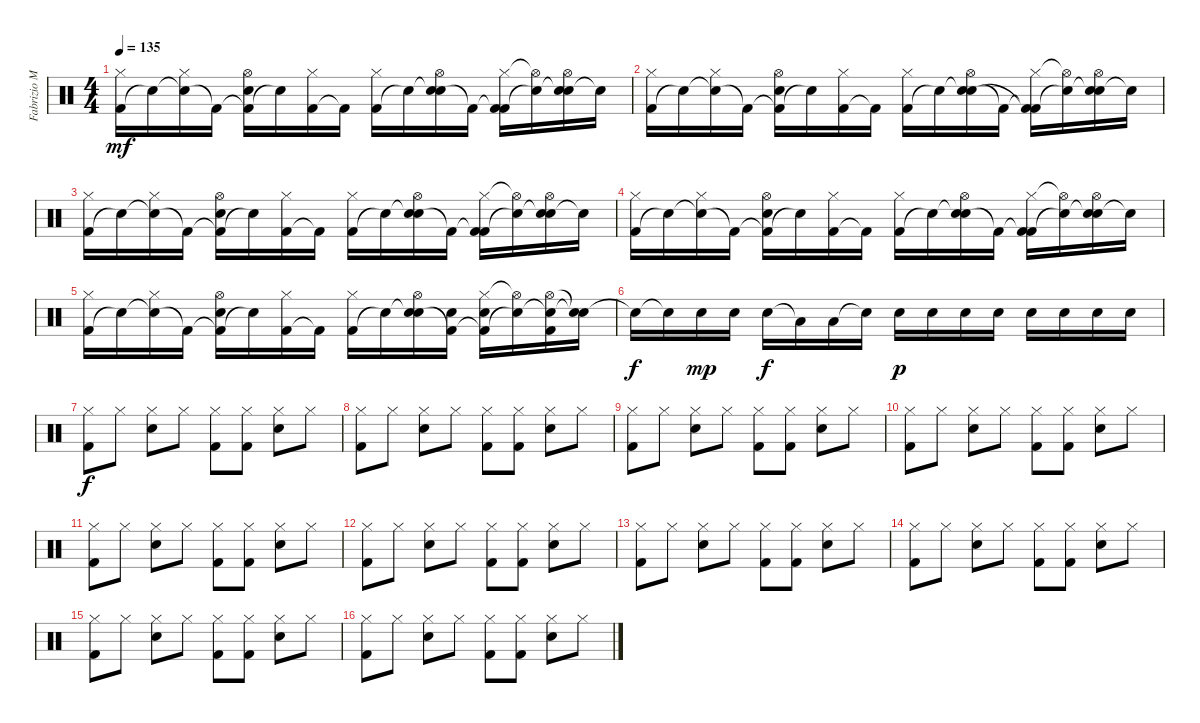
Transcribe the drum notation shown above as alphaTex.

\track ("Fabrizio Moretti" "Fabrizio M") {instrument percussion}
\staff {score}
\articulation defaults
\ts (4 4)
\tempo 135
\clef neutral
\ks c
("Kick (hit) 2" "Hi-Hat (closed)").16{dy mf} "Snare (hit)"{t}.16 ("Snare (hit)"{t} "Hi-Hat (closed)").16 "Kick (hit) 2"{t}.16 ("Kick (hit) 2"{t} "Hi-Hat (open)" "Electric Snare (hit)").16 "Snare (hit)"{t}.16 ("Kick (hit) 2" "Hi-Hat (closed)").16 "Kick (hit) 2"{t}.16 ("Kick (hit) 2" "Hi-Hat (closed)").16 "Snare (hit)"{t}.16 ("Snare (hit)"{t} "Hi-Hat (open)" "Electric Snare (hit)").16 "Kick (hit) 2"{t}.16 ("Kick (hit) 2"{t} "Hi-Hat (closed)" "Kick (hit) 2").16 ("Snare (hit)"{t} "Hi-Hat (open)"{t}).16 ("Snare (hit)"{t} "Hi-Hat (open)" "Electric Snare (hit)").16 "Snare (hit)"{t}.16 |
("Kick (hit) 2" "Hi-Hat (closed)").16 "Snare (hit)"{t}.16 ("Snare (hit)"{t} "Hi-Hat (closed)").16 "Kick (hit) 2"{t}.16 ("Kick (hit) 2"{t} "Hi-Hat (open)" "Electric Snare (hit)").16 "Snare (hit)"{t}.16 ("Kick (hit) 2" "Hi-Hat (closed)").16 "Kick (hit) 2"{t}.16 ("Kick (hit) 2" "Hi-Hat (closed)").16 "Snare (hit)"{t}.16 ("Snare (hit)"{t} "Hi-Hat (open)" "Electric Snare (hit)").16 "Kick (hit) 2"{t}.16 ("Kick (hit) 2"{t} "Hi-Hat (closed)" "Kick (hit) 2"{t}).16 ("Snare (hit)"{t} "Hi-Hat (open)"{t}).16 ("Snare (hit)"{t} "Hi-Hat (open)" "Electric Snare (hit)").16 "Snare (hit)"{t}.16 |
("Kick (hit) 2" "Hi-Hat (closed)").16 "Snare (hit)"{t}.16 ("Snare (hit)"{t} "Hi-Hat (closed)").16 "Kick (hit) 2"{t}.16 ("Kick (hit) 2"{t} "Hi-Hat (open)" "Electric Snare (hit)").16 "Snare (hit)"{t}.16 ("Kick (hit) 2" "Hi-Hat (closed)").16 "Kick (hit) 2"{t}.16 ("Kick (hit) 2" "Hi-Hat (closed)").16 "Snare (hit)"{t}.16 ("Snare (hit)"{t} "Hi-Hat (open)" "Electric Snare (hit)").16 "Kick (hit) 2"{t}.16 ("Kick (hit) 2"{t} "Hi-Hat (closed)" "Kick (hit) 2").16 ("Snare (hit)"{t} "Hi-Hat (open)"{t}).16 ("Snare (hit)"{t} "Hi-Hat (open)" "Electric Snare (hit)").16 "Snare (hit)"{t}.16 |
("Kick (hit) 2" "Hi-Hat (closed)").16 "Snare (hit)"{t}.16 ("Snare (hit)"{t} "Hi-Hat (closed)").16 "Kick (hit) 2"{t}.16 ("Kick (hit) 2"{t} "Hi-Hat (open)" "Electric Snare (hit)").16 "Snare (hit)"{t}.16 ("Kick (hit) 2" "Hi-Hat (closed)").16 "Kick (hit) 2"{t}.16 ("Kick (hit) 2" "Hi-Hat (closed)").16 "Snare (hit)"{t}.16 ("Snare (hit)"{t} "Hi-Hat (open)" "Electric Snare (hit)").16 "Kick (hit) 2"{t}.16 ("Kick (hit) 2"{t} "Hi-Hat (closed)" "Kick (hit) 2").16 ("Snare (hit)"{t} "Hi-Hat (open)"{t}).16 ("Snare (hit)"{t} "Hi-Hat (open)" "Electric Snare (hit)").16 "Snare (hit)"{t}.16 |
("Kick (hit) 2" "Hi-Hat (closed)").16 "Snare (hit)"{t}.16 ("Snare (hit)"{t} "Hi-Hat (closed)").16 "Kick (hit) 2"{t}.16 ("Kick (hit) 2"{t} "Hi-Hat (open)" "Electric Snare (hit)").16 "Snare (hit)"{t}.16 ("Kick (hit) 2" "Hi-Hat (closed)").16 "Kick (hit) 2"{t}.16 ("Kick (hit) 2" "Hi-Hat (closed)").16 "Snare (hit)"{t}.16 ("Snare (hit)"{t} "Hi-Hat (open)" "Electric Snare (hit)").16 ("Kick (hit) 2"{t} "Electric Snare (hit)").16 ("Kick (hit) 2"{t} "Hi-Hat (closed)" "Electric Snare (hit)").16 ("Snare (hit)"{t} "Hi-Hat (open)"{t}).16 ("Snare (hit)"{t} "Hi-Hat (open)" "Kick (hit) 2").16 ("Snare (hit)"{t} "Electric Snare (hit)"{t}).16 |
"Electric Snare (hit)"{t}.16{dy f} "Electric Snare (hit)"{t}.16 "Electric Snare (hit)".16{dy mp} "Electric Snare (hit)".16 "Electric Snare (hit)".16{dy f} "Low Tom (hit)"{t}.16 "Low Tom (hit)".16 "Electric Snare (hit)"{t}.16 "Electric Snare (hit)".16{dy p} "Electric Snare (hit)".16 "Electric Snare (hit)".16 "Electric Snare (hit)".16 "Electric Snare (hit)".16 "Electric Snare (hit)".16 "Electric Snare (hit)".16 "Electric Snare (hit)".16 |
("Hi-Hat (closed)" "Kick (hit) 2").8{dy f} "Hi-Hat (closed)".8 ("Hi-Hat (closed)" "Electric Snare (hit)").8 "Hi-Hat (closed)".8 ("Hi-Hat (closed)" "Kick (hit) 2").8 ("Hi-Hat (closed)" "Kick (hit) 2").8 ("Hi-Hat (closed)" "Electric Snare (hit)").8 "Hi-Hat (closed)".8 |
("Hi-Hat (closed)" "Kick (hit) 2").8 "Hi-Hat (closed)".8 ("Hi-Hat (closed)" "Electric Snare (hit)").8 "Hi-Hat (closed)".8 ("Hi-Hat (closed)" "Kick (hit) 2").8 ("Hi-Hat (closed)" "Kick (hit) 2").8 ("Hi-Hat (closed)" "Electric Snare (hit)").8 "Hi-Hat (closed)".8 |
("Hi-Hat (closed)" "Kick (hit) 2").8 "Hi-Hat (closed)".8 ("Hi-Hat (closed)" "Electric Snare (hit)").8 "Hi-Hat (closed)".8 ("Hi-Hat (closed)" "Kick (hit) 2").8 ("Hi-Hat (closed)" "Kick (hit) 2").8 ("Hi-Hat (closed)" "Electric Snare (hit)").8 "Hi-Hat (closed)".8 |
("Hi-Hat (closed)" "Kick (hit) 2").8 "Hi-Hat (closed)".8 ("Hi-Hat (closed)" "Electric Snare (hit)").8 "Hi-Hat (closed)".8 ("Hi-Hat (closed)" "Kick (hit) 2").8 ("Hi-Hat (closed)" "Kick (hit) 2").8 ("Hi-Hat (closed)" "Electric Snare (hit)").8 "Hi-Hat (closed)".8 |
("Hi-Hat (closed)" "Kick (hit) 2").8 "Hi-Hat (closed)".8 ("Hi-Hat (closed)" "Electric Snare (hit)").8 "Hi-Hat (closed)".8 ("Hi-Hat (closed)" "Kick (hit) 2").8 ("Hi-Hat (closed)" "Kick (hit) 2").8 ("Hi-Hat (closed)" "Electric Snare (hit)").8 "Hi-Hat (closed)".8 |
("Hi-Hat (closed)" "Kick (hit) 2").8 "Hi-Hat (closed)".8 ("Hi-Hat (closed)" "Electric Snare (hit)").8 "Hi-Hat (closed)".8 ("Hi-Hat (closed)" "Kick (hit) 2").8 ("Hi-Hat (closed)" "Kick (hit) 2").8 ("Hi-Hat (closed)" "Electric Snare (hit)").8 "Hi-Hat (closed)".8 |
("Hi-Hat (closed)" "Kick (hit) 2").8 "Hi-Hat (closed)".8 ("Hi-Hat (closed)" "Electric Snare (hit)").8 "Hi-Hat (closed)".8 ("Hi-Hat (closed)" "Kick (hit) 2").8 ("Hi-Hat (closed)" "Kick (hit) 2").8 ("Hi-Hat (closed)" "Electric Snare (hit)").8 "Hi-Hat (closed)".8 |
("Hi-Hat (closed)" "Kick (hit) 2").8 "Hi-Hat (closed)".8 ("Hi-Hat (closed)" "Electric Snare (hit)").8 "Hi-Hat (closed)".8 ("Hi-Hat (closed)" "Kick (hit) 2").8 ("Hi-Hat (closed)" "Kick (hit) 2").8 ("Hi-Hat (closed)" "Electric Snare (hit)").8 "Hi-Hat (closed)".8 |
("Hi-Hat (closed)" "Kick (hit) 2").8 "Hi-Hat (closed)".8 ("Hi-Hat (closed)" "Electric Snare (hit)").8 "Hi-Hat (closed)".8 ("Hi-Hat (closed)" "Kick (hit) 2").8 ("Hi-Hat (closed)" "Kick (hit) 2").8 ("Hi-Hat (closed)" "Electric Snare (hit)").8 "Hi-Hat (closed)".8 |
("Hi-Hat (closed)" "Kick (hit) 2").8 "Hi-Hat (closed)".8 ("Hi-Hat (closed)" "Electric Snare (hit)").8 "Hi-Hat (closed)".8 ("Hi-Hat (closed)" "Kick (hit) 2").8 ("Hi-Hat (closed)" "Kick (hit) 2").8 ("Hi-Hat (closed)" "Electric Snare (hit)").8 "Hi-Hat (closed)".8
